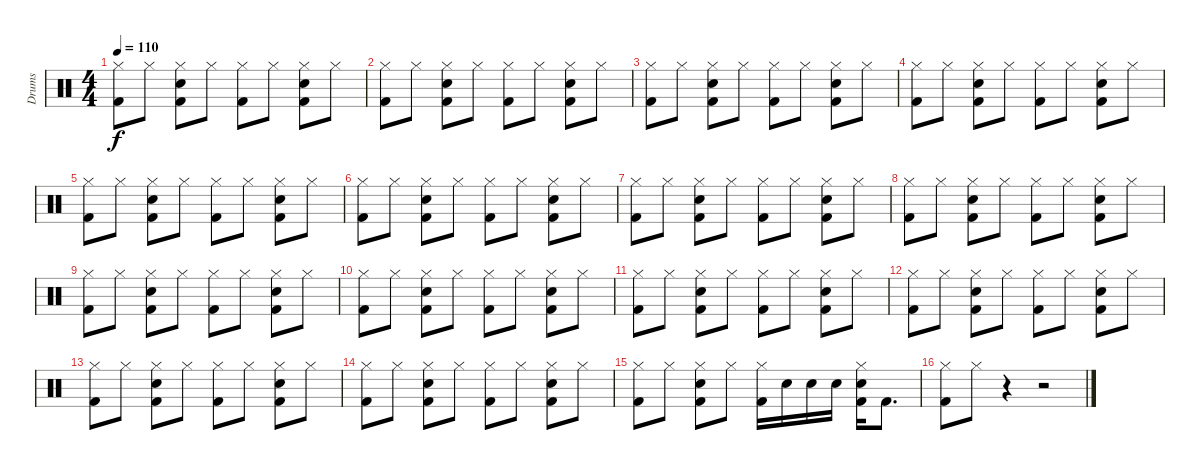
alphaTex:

\track ("Drums" "Drums") {instrument percussion}
\staff {score}
\articulation defaults
\ts (4 4)
\tempo 110
\clef neutral
\ks c
("Hi-Hat (closed)" "Kick (hit) 2").8{dy f} "Hi-Hat (closed)".8 ("Hi-Hat (closed)" "Snare (hit) 2" "Kick (hit) 2").8 "Hi-Hat (closed)".8 ("Hi-Hat (closed)" "Kick (hit) 2").8 "Hi-Hat (closed)".8 ("Hi-Hat (closed)" "Snare (hit) 2" "Kick (hit) 2").8 "Hi-Hat (closed)".8 |
("Hi-Hat (closed)" "Kick (hit) 2").8 "Hi-Hat (closed)".8 ("Hi-Hat (closed)" "Snare (hit) 2" "Kick (hit) 2").8 "Hi-Hat (closed)".8 ("Hi-Hat (closed)" "Kick (hit) 2").8 "Hi-Hat (closed)".8 ("Hi-Hat (closed)" "Snare (hit) 2" "Kick (hit) 2").8 "Hi-Hat (closed)".8 |
("Hi-Hat (closed)" "Kick (hit) 2").8 "Hi-Hat (closed)".8 ("Hi-Hat (closed)" "Snare (hit) 2" "Kick (hit) 2").8 "Hi-Hat (closed)".8 ("Hi-Hat (closed)" "Kick (hit) 2").8 "Hi-Hat (closed)".8 ("Hi-Hat (closed)" "Snare (hit) 2" "Kick (hit) 2").8 "Hi-Hat (closed)".8 |
("Hi-Hat (closed)" "Kick (hit) 2").8 "Hi-Hat (closed)".8 ("Hi-Hat (closed)" "Snare (hit) 2" "Kick (hit) 2").8 "Hi-Hat (closed)".8 ("Hi-Hat (closed)" "Kick (hit) 2").8 "Hi-Hat (closed)".8 ("Hi-Hat (closed)" "Snare (hit) 2" "Kick (hit) 2").8 "Hi-Hat (closed)".8 |
("Hi-Hat (closed)" "Kick (hit) 2").8 "Hi-Hat (closed)".8 ("Hi-Hat (closed)" "Snare (hit) 2" "Kick (hit) 2").8 "Hi-Hat (closed)".8 ("Hi-Hat (closed)" "Kick (hit) 2").8 "Hi-Hat (closed)".8 ("Hi-Hat (closed)" "Snare (hit) 2" "Kick (hit) 2").8 "Hi-Hat (closed)".8 |
("Hi-Hat (closed)" "Kick (hit) 2").8 "Hi-Hat (closed)".8 ("Hi-Hat (closed)" "Snare (hit) 2" "Kick (hit) 2").8 "Hi-Hat (closed)".8 ("Hi-Hat (closed)" "Kick (hit) 2").8 "Hi-Hat (closed)".8 ("Hi-Hat (closed)" "Snare (hit) 2" "Kick (hit) 2").8 "Hi-Hat (closed)".8 |
("Hi-Hat (closed)" "Kick (hit) 2").8 "Hi-Hat (closed)".8 ("Hi-Hat (closed)" "Snare (hit) 2" "Kick (hit) 2").8 "Hi-Hat (closed)".8 ("Hi-Hat (closed)" "Kick (hit) 2").8 "Hi-Hat (closed)".8 ("Hi-Hat (closed)" "Snare (hit) 2" "Kick (hit) 2").8 "Hi-Hat (closed)".8 |
("Hi-Hat (closed)" "Kick (hit) 2").8 "Hi-Hat (closed)".8 ("Hi-Hat (closed)" "Snare (hit) 2" "Kick (hit) 2").8 "Hi-Hat (closed)".8 ("Hi-Hat (closed)" "Kick (hit) 2").8 "Hi-Hat (closed)".8 ("Hi-Hat (closed)" "Snare (hit) 2" "Kick (hit) 2").8 "Hi-Hat (closed)".8 |
("Hi-Hat (closed)" "Kick (hit) 2").8 "Hi-Hat (closed)".8 ("Hi-Hat (closed)" "Snare (hit) 2" "Kick (hit) 2").8 "Hi-Hat (closed)".8 ("Hi-Hat (closed)" "Kick (hit) 2").8 "Hi-Hat (closed)".8 ("Hi-Hat (closed)" "Snare (hit) 2" "Kick (hit) 2").8 "Hi-Hat (closed)".8 |
("Hi-Hat (closed)" "Kick (hit) 2").8 "Hi-Hat (closed)".8 ("Hi-Hat (closed)" "Snare (hit) 2" "Kick (hit) 2").8 "Hi-Hat (closed)".8 ("Hi-Hat (closed)" "Kick (hit) 2").8 "Hi-Hat (closed)".8 ("Hi-Hat (closed)" "Snare (hit) 2" "Kick (hit) 2").8 "Hi-Hat (closed)".8 |
("Hi-Hat (closed)" "Kick (hit) 2").8 "Hi-Hat (closed)".8 ("Hi-Hat (closed)" "Snare (hit) 2" "Kick (hit) 2").8 "Hi-Hat (closed)".8 ("Hi-Hat (closed)" "Kick (hit) 2").8 "Hi-Hat (closed)".8 ("Hi-Hat (closed)" "Snare (hit) 2" "Kick (hit) 2").8 "Hi-Hat (closed)".8 |
("Hi-Hat (closed)" "Kick (hit) 2").8 "Hi-Hat (closed)".8 ("Hi-Hat (closed)" "Snare (hit) 2" "Kick (hit) 2").8 "Hi-Hat (closed)".8 ("Hi-Hat (closed)" "Kick (hit) 2").8 "Hi-Hat (closed)".8 ("Hi-Hat (closed)" "Snare (hit) 2" "Kick (hit) 2").8 "Hi-Hat (closed)".8 |
("Hi-Hat (closed)" "Kick (hit) 2").8 "Hi-Hat (closed)".8 ("Hi-Hat (closed)" "Snare (hit) 2" "Kick (hit) 2").8 "Hi-Hat (closed)".8 ("Hi-Hat (closed)" "Kick (hit) 2").8 "Hi-Hat (closed)".8 ("Hi-Hat (closed)" "Snare (hit) 2" "Kick (hit) 2").8 "Hi-Hat (closed)".8 |
("Hi-Hat (closed)" "Kick (hit) 2").8 "Hi-Hat (closed)".8 ("Hi-Hat (closed)" "Snare (hit) 2" "Kick (hit) 2").8 "Hi-Hat (closed)".8 ("Hi-Hat (closed)" "Kick (hit) 2").8 "Hi-Hat (closed)".8 ("Hi-Hat (closed)" "Snare (hit) 2" "Kick (hit) 2").8 "Hi-Hat (closed)".8 |
("Hi-Hat (closed)" "Kick (hit) 2").8 "Hi-Hat (closed)".8 ("Hi-Hat (closed)" "Snare (hit) 2" "Kick (hit) 2").8 "Hi-Hat (closed)".8 ("Hi-Hat (closed)" "Kick (hit) 2").16 "Snare (hit) 2".16 "Snare (hit) 2".16 "Snare (hit) 2".16 ("Hi-Hat (closed)" "Snare (hit) 2" "Kick (hit) 2").16 "Kick (hit) 2".8{d} |
("Hi-Hat (closed)" "Kick (hit) 2").8 "Hi-Hat (closed)".8 r.4 r.2
